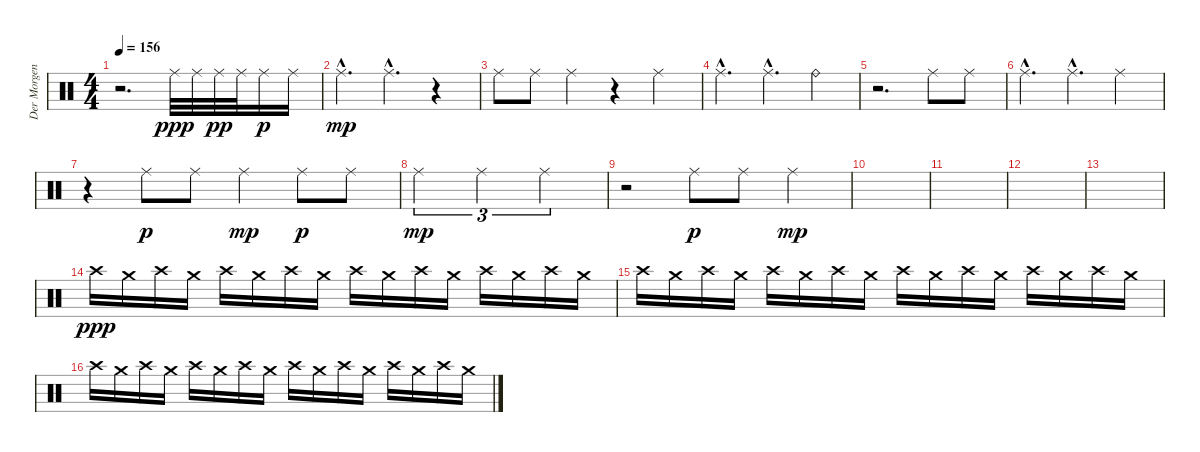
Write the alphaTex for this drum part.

\track ("Der Morgenstern" "Der Morgen") {instrument percussion}
\staff {score}
\articulation defaults
\ts (4 4)
\tempo 156
\clef neutral
\ks c
r.2{d dy mp} "Ride (middle)".32{dy ppp} "Ride (middle)".32 "Ride (middle)".32{dy pp} "Ride (middle)".32 "Ride (middle)".16{dy p} "Ride (middle)".16 |
"Ride (middle)"{hac}.4{d dy mp} "Ride (middle)"{hac}.4{d} r.4 |
"Ride (middle)".8 "Ride (middle)".8 "Ride (middle)".4 r.4 "Ride (middle)".4 |
"Ride (middle)"{hac}.4{d} "Ride (middle)"{hac}.4{d} "Ride (bell)".4 |
r.2{d} "Ride (middle)".8 "Ride (middle)".8 |
"Ride (middle)"{hac}.4{d} "Ride (middle)"{hac}.4{d} "Ride (middle)".4 |
r.4 "Ride (middle)".8{dy p} "Ride (middle)".8 "Ride (middle)".4{dy mp} "Ride (middle)".8{dy p} "Ride (middle)".8 |
"Ride (middle)".2{tu (3 2) dy mp} "Ride (middle)".2{tu (3 2)} "Ride (middle)".2{tu (3 2)} |
r.2 "Ride (middle)".8{dy p} "Ride (middle)".8 "Ride (middle)".4{dy mp} |
|
|
|
|
"Crash high (hit)".16{dy ppp} "Crash medium (hit)".16 "Crash high (hit)".16 "Crash medium (hit)".16 "Crash high (hit)".16 "Crash medium (hit)".16 "Crash high (hit)".16 "Crash medium (hit)".16 "Crash high (hit)".16 "Crash medium (hit)".16 "Crash high (hit)".16 "Crash medium (hit)".16 "Crash high (hit)".16 "Crash medium (hit)".16 "Crash high (hit)".16 "Crash medium (hit)".16 |
"Crash high (hit)".16 "Crash medium (hit)".16 "Crash high (hit)".16 "Crash medium (hit)".16 "Crash high (hit)".16 "Crash medium (hit)".16 "Crash high (hit)".16 "Crash medium (hit)".16 "Crash high (hit)".16 "Crash medium (hit)".16 "Crash high (hit)".16 "Crash medium (hit)".16 "Crash high (hit)".16 "Crash medium (hit)".16 "Crash high (hit)".16 "Crash medium (hit)".16 |
"Crash high (hit)".16 "Crash medium (hit)".16 "Crash high (hit)".16 "Crash medium (hit)".16 "Crash high (hit)".16 "Crash medium (hit)".16 "Crash high (hit)".16 "Crash medium (hit)".16 "Crash high (hit)".16 "Crash medium (hit)".16 "Crash high (hit)".16 "Crash medium (hit)".16 "Crash high (hit)".16 "Crash medium (hit)".16 "Crash high (hit)".16 "Crash medium (hit)".16
